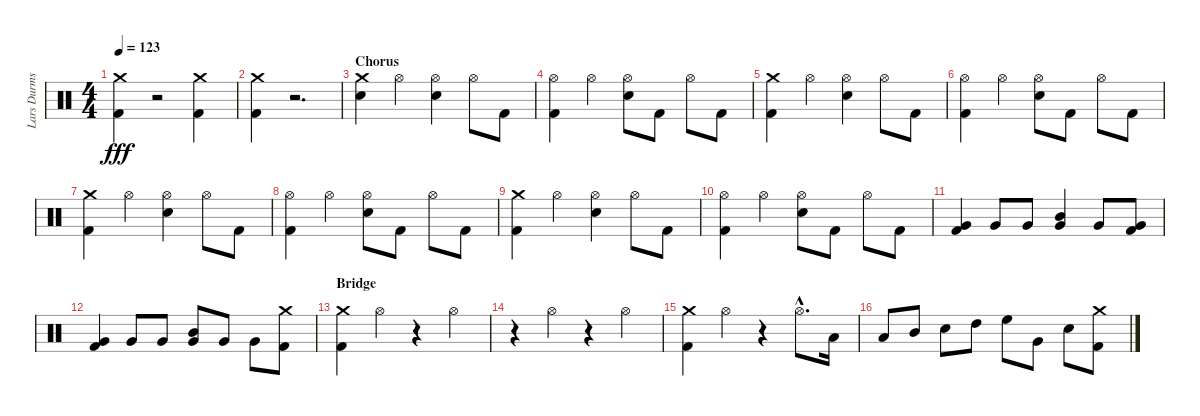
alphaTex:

\track ("Lars Durms" "Lars Durms") {instrument percussion}
\staff {score}
\articulation defaults
\ts (4 4)
\tempo 123
\clef neutral
\ks c
("Crash medium (hit)" "Kick (hit) 2").4{dy fff} r.2 ("Kick (hit) 2" "Crash medium (hit)").4 |
("Crash medium (hit)" "Kick (hit) 2").4 r.2{d} |
\section ("" "Chorus")
("Snare (hit) 2" "Crash medium (hit)").4 "Hi-Hat (open)".4 ("Snare (hit) 2" "Hi-Hat (open)").4 "Hi-Hat (open)".8 "Kick (hit) 2".8 |
("Hi-Hat (open)" "Kick (hit) 2").4 "Hi-Hat (open)".4 ("Snare (hit) 2" "Hi-Hat (open)").8 "Kick (hit) 2".8 "Hi-Hat (open)".8 "Kick (hit) 2".8 |
("Kick (hit) 2" "Crash medium (hit)").4 "Hi-Hat (open)".4 ("Snare (hit) 2" "Hi-Hat (open)").4 "Hi-Hat (open)".8 "Kick (hit) 2".8 |
("Hi-Hat (open)" "Kick (hit) 2").4 "Hi-Hat (open)".4 ("Snare (hit) 2" "Hi-Hat (open)").8 "Kick (hit) 2".8 "Hi-Hat (open)".8 "Kick (hit) 2".8 |
("Kick (hit) 2" "Crash medium (hit)").4 "Hi-Hat (open)".4 ("Snare (hit) 2" "Hi-Hat (open)").4 "Hi-Hat (open)".8 "Kick (hit) 2".8 |
("Hi-Hat (open)" "Kick (hit) 2").4 "Hi-Hat (open)".4 ("Snare (hit) 2" "Hi-Hat (open)").8 "Kick (hit) 2".8 "Hi-Hat (open)".8 "Kick (hit) 2".8 |
("Kick (hit) 2" "Crash medium (hit)").4 "Hi-Hat (open)".4 ("Snare (hit) 2" "Hi-Hat (open)").4 "Hi-Hat (open)".8 "Kick (hit) 2".8 |
("Hi-Hat (open)" "Kick (hit) 2").4 "Hi-Hat (open)".4 ("Snare (hit) 2" "Hi-Hat (open)").8 "Kick (hit) 2".8 "Hi-Hat (open)".8 "Kick (hit) 2".8 |
("Kick (hit) 2" "Very Low Tom (hit)").4 "Very Low Tom (hit)".8 "Very Low Tom (hit)".8 ("Mid Tom (hit)" "Very Low Tom (hit)").4 "Very Low Tom (hit)".8 ("Kick (hit) 2" "Very Low Tom (hit)").8 |
("Kick (hit) 2" "Very Low Tom (hit)").4 "Very Low Tom (hit)".8 "Very Low Tom (hit)".8 ("Very Low Tom (hit)" "Mid Tom (hit)").8 "Very Low Tom (hit)".8 "Very Low Tom (hit)".8 ("Kick (hit) 2" "Crash medium (hit)").8 |
\section ("" "Bridge ")
("Crash medium (hit)" "Kick (hit) 2").4 "Hi-Hat (open)".4 r.4 "Hi-Hat (open)".4 |
r.4 "Hi-Hat (open)".4 r.4 "Hi-Hat (open)".4 |
("Kick (hit) 2" "Crash medium (hit)").4 "Hi-Hat (open)".4 r.4 "Hi-Hat (open)"{hac}.8{d} "Low Tom (hit)".16 |
"Low Tom (hit)".8 "Mid Tom (hit)".8 "Snare (hit) 2".8 "High Tom (hit)".8 "High Floor Tom (hit)".8 "Very Low Tom (hit)".8 "Snare (hit) 2".8 ("Crash medium (hit)" "Kick (hit) 2").8
